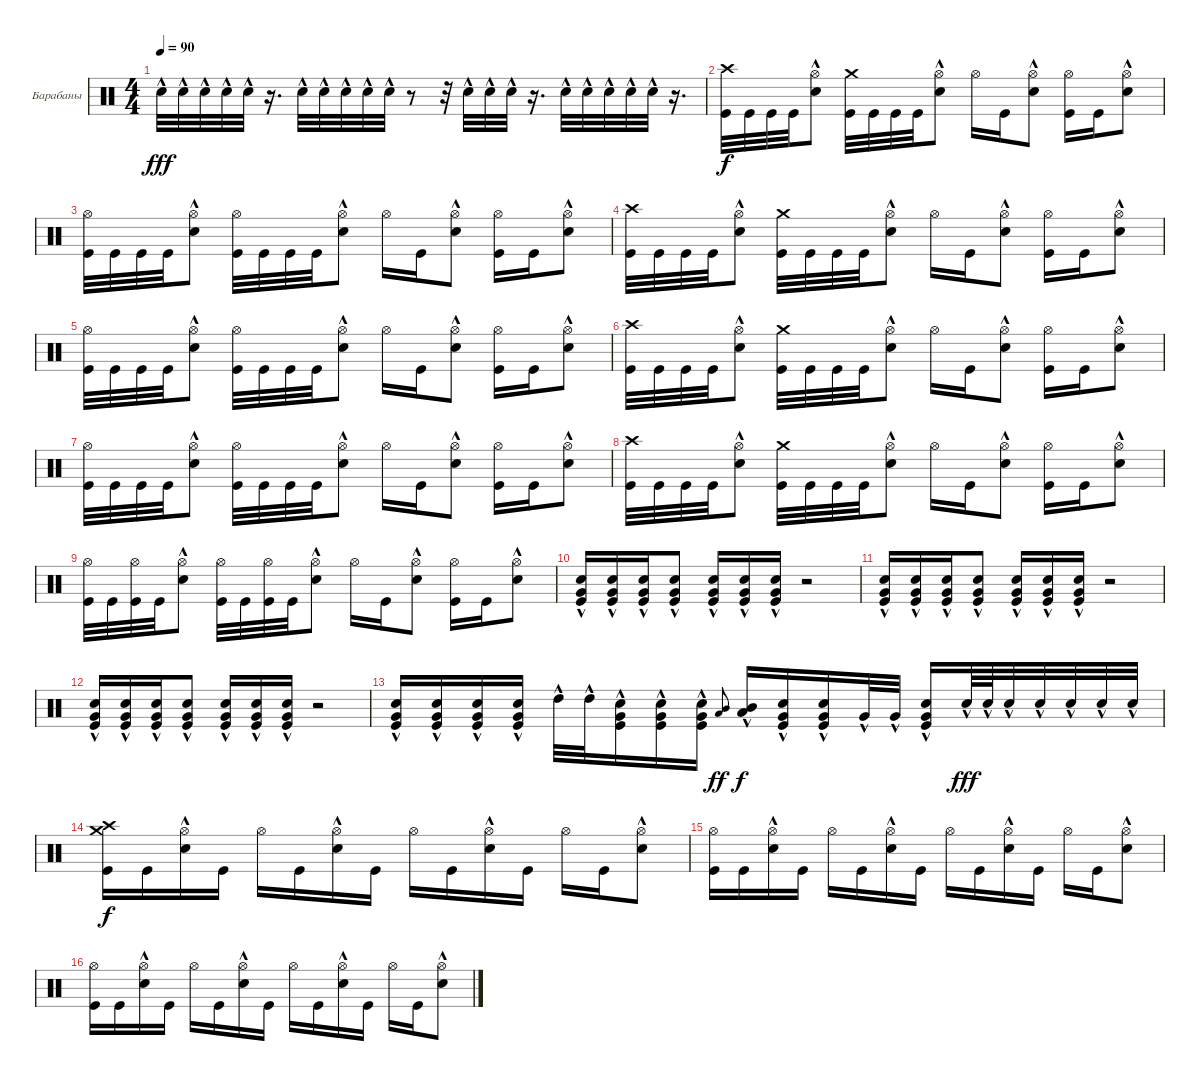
\bracketExtendMode groupsimilarinstruments
\firstSystemTrackNameOrientation horizontal
\otherSystemsTrackNameOrientation horizontal
\track ("Ударные" "Барабаны") {instrument percussion}
\staff {score}
\articulation defaults
\ts (4 4)
\tempo 90
\clef neutral
\ks c "Snare (hit) 2"{hac}.32{dy fff} "Snare (hit) 2"{hac}.32 "Snare (hit) 2"{hac}.32 "Snare (hit) 2"{hac}.32 "Snare (hit) 2"{hac}.32
r.16{d} "Snare (hit) 2"{hac}.32 "Snare (hit) 2"{hac}.32 "Snare (hit) 2"{hac}.32 "Snare (hit) 2"{hac}.32 "Snare (hit) 2"{hac}.32 r.8 r.32 "Snare (hit) 2"{hac}.32 "Snare (hit) 2"{hac}.32 "Snare (hit) 2"{hac}.32 r.16{d} "Snare (hit) 2"{hac}.32 "Snare (hit) 2"{hac}.32 "Snare (hit) 2"{hac}.32 "Snare (hit) 2"{hac}.32 "Snare (hit) 2"{hac}.32 r.16{d} |
("Crash high (hit)" "Kick (hit)").32{dy f} "Kick (hit)".32 "Kick (hit)".32 "Kick (hit)".32 ("Hi-Hat (open)" "Snare (hit) 2"{hac}).8 ("Crash medium (hit)" "Kick (hit)").32 "Kick (hit)".32 "Kick (hit)".32 "Kick (hit)".32 ("Hi-Hat (open)" "Snare (hit) 2"{hac}).8 "Hi-Hat (open)".16 "Kick (hit)".16 ("Hi-Hat (open)" "Snare (hit) 2"{hac}).8 ("Hi-Hat (open)" "Kick (hit)").16 "Kick (hit)".16 ("Hi-Hat (open)" "Snare (hit) 2"{hac}).8 |
("Hi-Hat (open)" "Kick (hit)").32 "Kick (hit)".32 "Kick (hit)".32 "Kick (hit)".32 ("Hi-Hat (open)" "Snare (hit) 2"{hac}).8 ("Hi-Hat (open)" "Kick (hit)").32 "Kick (hit)".32 "Kick (hit)".32 "Kick (hit)".32 ("Hi-Hat (open)" "Snare (hit) 2"{hac}).8 "Hi-Hat (open)".16 "Kick (hit)".16 ("Hi-Hat (open)" "Snare (hit) 2"{hac}).8 ("Hi-Hat (open)" "Kick (hit)").16 "Kick (hit)".16 ("Hi-Hat (open)" "Snare (hit) 2"{hac}).8 |
("Crash high (hit)" "Kick (hit)").32 "Kick (hit)".32 "Kick (hit)".32 "Kick (hit)".32 ("Hi-Hat (open)" "Snare (hit) 2"{hac}).8 ("Crash medium (hit)" "Kick (hit)").32 "Kick (hit)".32 "Kick (hit)".32 "Kick (hit)".32 ("Hi-Hat (open)" "Snare (hit) 2"{hac}).8 "Hi-Hat (open)".16 "Kick (hit)".16 ("Hi-Hat (open)" "Snare (hit) 2"{hac}).8 ("Hi-Hat (open)" "Kick (hit)").16 "Kick (hit)".16 ("Hi-Hat (open)" "Snare (hit) 2"{hac}).8 |
("Hi-Hat (open)" "Kick (hit)").32 "Kick (hit)".32 "Kick (hit)".32 "Kick (hit)".32 ("Hi-Hat (open)" "Snare (hit) 2"{hac}).8 ("Hi-Hat (open)" "Kick (hit)").32 "Kick (hit)".32 "Kick (hit)".32 "Kick (hit)".32 ("Hi-Hat (open)" "Snare (hit) 2"{hac}).8 "Hi-Hat (open)".16 "Kick (hit)".16 ("Hi-Hat (open)" "Snare (hit) 2"{hac}).8 ("Hi-Hat (open)" "Kick (hit)").16 "Kick (hit)".16 ("Hi-Hat (open)" "Snare (hit) 2"{hac}).8 |
("Crash high (hit)" "Kick (hit)").32 "Kick (hit)".32 "Kick (hit)".32 "Kick (hit)".32 ("Hi-Hat (open)" "Snare (hit) 2"{hac}).8 ("Crash medium (hit)" "Kick (hit)").32 "Kick (hit)".32 "Kick (hit)".32 "Kick (hit)".32 ("Hi-Hat (open)" "Snare (hit) 2"{hac}).8 "Hi-Hat (open)".16 "Kick (hit)".16 ("Hi-Hat (open)" "Snare (hit) 2"{hac}).8 ("Hi-Hat (open)" "Kick (hit)").16 "Kick (hit)".16 ("Hi-Hat (open)" "Snare (hit) 2"{hac}).8 |
("Hi-Hat (open)" "Kick (hit)").32 "Kick (hit)".32 "Kick (hit)".32 "Kick (hit)".32 ("Hi-Hat (open)" "Snare (hit) 2"{hac}).8 ("Hi-Hat (open)" "Kick (hit)").32 "Kick (hit)".32 "Kick (hit)".32 "Kick (hit)".32 ("Hi-Hat (open)" "Snare (hit) 2"{hac}).8 "Hi-Hat (open)".16 "Kick (hit)".16 ("Hi-Hat (open)" "Snare (hit) 2"{hac}).8 ("Hi-Hat (open)" "Kick (hit)").16 "Kick (hit)".16 ("Hi-Hat (open)" "Snare (hit) 2"{hac}).8 |
("Crash high (hit)" "Kick (hit)").32 "Kick (hit)".32 "Kick (hit)".32 "Kick (hit)".32 ("Hi-Hat (open)" "Snare (hit) 2"{hac}).8 ("Crash medium (hit)" "Kick (hit)").32 "Kick (hit)".32 "Kick (hit)".32 "Kick (hit)".32 ("Hi-Hat (open)" "Snare (hit) 2"{hac}).8 "Hi-Hat (open)".16 "Kick (hit)".16 ("Hi-Hat (open)" "Snare (hit) 2"{hac}).8 ("Hi-Hat (open)" "Kick (hit)").16 "Kick (hit)".16 ("Hi-Hat (open)" "Snare (hit) 2"{hac}).8 |
("Hi-Hat (open)" "Kick (hit)").32 "Kick (hit)".32 ("Hi-Hat (open)" "Kick (hit)").32 "Kick (hit)".32 ("Hi-Hat (open)" "Snare (hit) 2"{hac}).8 ("Hi-Hat (open)" "Kick (hit)").32 "Kick (hit)".32 ("Hi-Hat (open)" "Kick (hit)").32 "Kick (hit)".32 ("Hi-Hat (open)" "Snare (hit) 2"{hac}).8 "Hi-Hat (open)".16 "Kick (hit)".16 ("Hi-Hat (open)" "Snare (hit) 2"{hac}).8 ("Hi-Hat (open)" "Kick (hit)").16 "Kick (hit)".16 ("Hi-Hat (open)" "Snare (hit) 2"{hac}).8 |
("Kick (hit)" "Snare (hit) 2"{hac} "Very Low Tom (hit)"{hac}).16 ("Kick (hit)" "Snare (hit) 2"{hac} "Very Low Tom (hit)"{hac}).16 ("Kick (hit)" "Snare (hit) 2"{hac} "Very Low Tom (hit)"{hac}).16 ("Kick (hit)" "Snare (hit) 2"{hac} "Very Low Tom (hit)"{hac}).8 ("Kick (hit)" "Snare (hit) 2"{hac} "Very Low Tom (hit)"{hac}).16 ("Kick (hit)" "Snare (hit) 2"{hac} "Very Low Tom (hit)"{hac}).16 ("Kick (hit)" "Snare (hit) 2"{hac} "Very Low Tom (hit)"{hac}).16 r.2 |
("Kick (hit)" "Snare (hit) 2"{hac} "Very Low Tom (hit)"{hac}).16 ("Kick (hit)" "Snare (hit) 2"{hac} "Very Low Tom (hit)"{hac}).16 ("Kick (hit)" "Snare (hit) 2"{hac} "Very Low Tom (hit)"{hac}).16 ("Kick (hit)" "Snare (hit) 2"{hac} "Very Low Tom (hit)"{hac}).8 ("Kick (hit)" "Snare (hit) 2"{hac} "Very Low Tom (hit)"{hac}).16 ("Kick (hit)" "Snare (hit) 2"{hac} "Very Low Tom (hit)"{hac}).16 ("Kick (hit)" "Snare (hit) 2"{hac} "Very Low Tom (hit)"{hac}).16 r.2 |
("Kick (hit)" "Snare (hit) 2"{hac} "Very Low Tom (hit)"{hac}).16 ("Kick (hit)" "Snare (hit) 2"{hac} "Very Low Tom (hit)"{hac}).16 ("Kick (hit)" "Snare (hit) 2"{hac} "Very Low Tom (hit)"{hac}).16 ("Kick (hit)" "Snare (hit) 2"{hac} "Very Low Tom (hit)"{hac}).8 ("Kick (hit)" "Snare (hit) 2"{hac} "Very Low Tom (hit)"{hac}).16 ("Kick (hit)" "Snare (hit) 2"{hac} "Very Low Tom (hit)"{hac}).16 ("Kick (hit)" "Snare (hit) 2"{hac} "Very Low Tom (hit)"{hac}).16 r.2 |
("Kick (hit)" "Snare (hit) 2"{hac} "Very Low Tom (hit)"{hac}).16 ("Kick (hit)" "Snare (hit) 2"{hac} "Very Low Tom (hit)"{hac}).16 ("Kick (hit)" "Snare (hit) 2"{hac} "Very Low Tom (hit)"{hac}).16 ("Kick (hit)" "Snare (hit) 2"{hac} "Very Low Tom (hit)"{hac}).16 "High Tom (hit)"{hac}.32 "High Tom (hit)"{hac}.32 ("Kick (hit)" "Snare (hit) 2"{hac} "Very Low Tom (hit)"{hac}).16 ("Kick (hit)" "Snare (hit) 2"{hac} "Very Low Tom (hit)"{hac}).16 ("Kick (hit)" "Snare (hit) 2"{hac} "Very Low Tom (hit)"{hac}).16 ("Mid Tom (hit)" "Low Tom (hit)").8{gr onbeat dy ff} ("Mid Tom (hit)"{hac} "Low Tom (hit)"{hac}).16{dy f} ("Kick (hit)" "Snare (hit) 2"{hac} "Very Low Tom (hit)"{hac}).16 ("Kick (hit)" "Snare (hit) 2"{hac} "Very Low Tom (hit)"{hac}).16 "Very Low Tom (hit)"{hac}.32 "Very Low Tom (hit)"{hac}.32 ("Kick (hit)" "Snare (hit) 2"{hac} "Very Low Tom (hit)"{hac}).16 "Snare (hit) 2"{hac}.64{dy fff} "Snare (hit) 2"{hac}.64 "Snare (hit) 2"{hac}.32 "Snare (hit) 2"{hac}.32 "Snare (hit) 2"{hac}.32 "Snare (hit) 2"{hac}.32 "Snare (hit) 2"{hac}.32 |
("Crash medium (hit)" "Kick (hit)" "Crash high (hit)").16{dy f} "Kick (hit)".16 ("Hi-Hat (open)" "Snare (hit) 2"{hac}).16 "Kick (hit)".16 "Hi-Hat (open)".16 "Kick (hit)".16 ("Hi-Hat (open)" "Snare (hit) 2"{hac}).16 "Kick (hit)".16 "Hi-Hat (open)".16 "Kick (hit)".16 ("Hi-Hat (open)" "Snare (hit) 2"{hac}).16 "Kick (hit)".16 "Hi-Hat (open)".16 "Kick (hit)".16 ("Hi-Hat (open)" "Snare (hit) 2"{hac}).8 |
("Hi-Hat (open)" "Kick (hit)").16 "Kick (hit)".16 ("Hi-Hat (open)" "Snare (hit) 2"{hac}).16 "Kick (hit)".16 "Hi-Hat (open)".16 "Kick (hit)".16 ("Hi-Hat (open)" "Snare (hit) 2"{hac}).16 "Kick (hit)".16 "Hi-Hat (open)".16 "Kick (hit)".16 ("Hi-Hat (open)" "Snare (hit) 2"{hac}).16 "Kick (hit)".16 "Hi-Hat (open)".16 "Kick (hit)".16 ("Hi-Hat (open)" "Snare (hit) 2"{hac}).8 |
("Hi-Hat (open)" "Kick (hit)").16 "Kick (hit)".16 ("Hi-Hat (open)" "Snare (hit) 2"{hac}).16 "Kick (hit)".16 "Hi-Hat (open)".16 "Kick (hit)".16 ("Hi-Hat (open)" "Snare (hit) 2"{hac}).16 "Kick (hit)".16 "Hi-Hat (open)".16 "Kick (hit)".16 ("Hi-Hat (open)" "Snare (hit) 2"{hac}).16 "Kick (hit)".16 "Hi-Hat (open)".16 "Kick (hit)".16 ("Hi-Hat (open)" "Snare (hit) 2"{hac}).8
